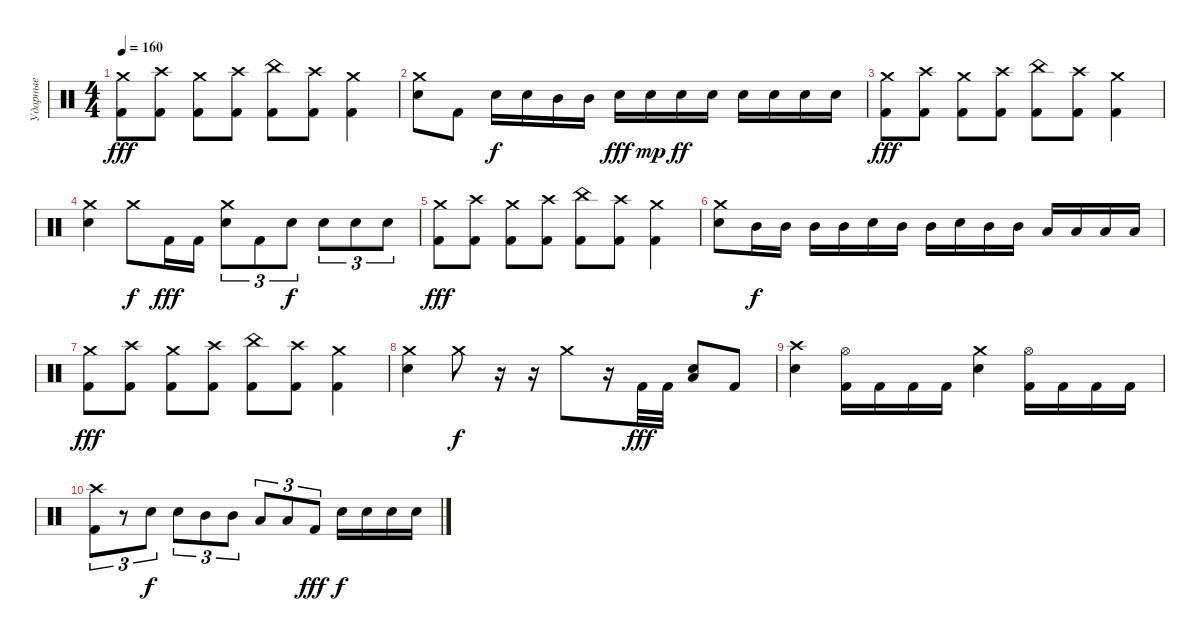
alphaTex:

\track ("Ударные" "Ударные") {instrument percussion}
\staff {score}
\articulation defaults
\ts (4 4)
\tempo 160
\clef neutral
\ks c
("Crash medium (hit)" "Kick (hit) 2").8{dy fff} ("Crash high (hit)" "Kick (hit) 2").8 ("Crash medium (hit)" "Kick (hit) 2").8 ("Crash high (hit)" "Kick (hit) 2").8 ("China (hit)" "Kick (hit) 2").8 ("Crash high (hit)" "Kick (hit) 2").8 ("Crash medium (hit)" "Kick (hit) 2").4 |
("Crash medium (hit)" "Electric Snare (hit)").8 "Kick (hit) 2".8 "Electric Snare (hit)".16{dy f} "Electric Snare (hit)".16 "Mid Tom (hit)".16 "Mid Tom (hit)".16 "Electric Snare (hit)".16{dy fff} "Electric Snare (hit)".16{dy mp} "Electric Snare (hit)".16{dy ff} "Electric Snare (hit)".16 "Electric Snare (hit)".16 "Electric Snare (hit)".16 "Electric Snare (hit)".16 "Electric Snare (hit)".16 |
("Crash medium (hit)" "Kick (hit) 2").8{dy fff} ("Crash high (hit)" "Kick (hit) 2").8 ("Crash medium (hit)" "Kick (hit) 2").8 ("Crash high (hit)" "Kick (hit) 2").8 ("China (hit)" "Kick (hit) 2").8 ("Crash high (hit)" "Kick (hit) 2").8 ("Crash medium (hit)" "Kick (hit) 2").4 |
("Crash medium (hit)" "Electric Snare (hit)").4 "Crash medium (hit)".8{dy f} "Kick (hit) 2".16{dy fff} "Kick (hit) 2".16 ("Crash medium (hit)" "Electric Snare (hit)").8{tu (3 2)} "Kick (hit) 2".8{tu (3 2)} "Electric Snare (hit)".8{tu (3 2) dy f} "Electric Snare (hit)".8{tu (3 2)} "Electric Snare (hit)".8{tu (3 2)} "Electric Snare (hit)".8{tu (3 2)} |
("Crash medium (hit)" "Kick (hit) 2").8{dy fff} ("Crash high (hit)" "Kick (hit) 2").8 ("Crash medium (hit)" "Kick (hit) 2").8 ("Crash high (hit)" "Kick (hit) 2").8 ("China (hit)" "Kick (hit) 2").8 ("Crash high (hit)" "Kick (hit) 2").8 ("Crash medium (hit)" "Kick (hit) 2").4 |
("Crash medium (hit)" "Electric Snare (hit)").8 "Mid Tom (hit)".16{dy f} "Mid Tom (hit)".16 "Mid Tom (hit)".16 "Mid Tom (hit)".16 "Electric Snare (hit)".16 "Mid Tom (hit)".16 "Mid Tom (hit)".16 "Electric Snare (hit)".16 "Mid Tom (hit)".16 "Mid Tom (hit)".16 "Low Tom (hit)".16 "Low Tom (hit)".16 "Low Floor Tom (hit)".16 "Low Floor Tom (hit)".16 |
("Crash medium (hit)" "Kick (hit) 2").8{dy fff} ("Crash high (hit)" "Kick (hit) 2").8 ("Crash medium (hit)" "Kick (hit) 2").8 ("Crash high (hit)" "Kick (hit) 2").8 ("China (hit)" "Kick (hit) 2").8 ("Crash high (hit)" "Kick (hit) 2").8 ("Crash medium (hit)" "Kick (hit) 2").4 |
("Crash medium (hit)" "Electric Snare (hit)").4 "Crash medium (hit)".8{dy f} r.16 r.16 "Crash medium (hit)".8 r.16 "Kick (hit) 2".32{dy fff} "Kick (hit) 2".32 ("Low Floor Tom (hit)" "Electric Snare (hit)").8 "Kick (hit) 2".8 |
("Crash high (hit)" "Electric Snare (hit)").4 ("Hi-Hat (open)" "Kick (hit) 2").16 "Kick (hit) 2".16 "Kick (hit) 2".16 "Kick (hit) 2".16 ("Crash medium (hit)" "Electric Snare (hit)").4 ("Hi-Hat (open)" "Kick (hit) 2").16 "Kick (hit) 2".16 "Kick (hit) 2".16 "Kick (hit) 2".16 |
("Crash high (hit)" "Kick (hit) 2").8{tu (3 2)} r.8{tu (3 2)} "Electric Snare (hit)".8{tu (3 2) dy f} "Electric Snare (hit)".8{tu (3 2)} "Mid Tom (hit)".8{tu (3 2)} "Mid Tom (hit)".8{tu (3 2)} "Low Tom (hit)".8{tu (3 2)} "Low Tom (hit)".8{tu (3 2)} "Kick (hit) 2".8{tu (3 2) dy fff} "Electric Snare (hit)".16{dy f} "Electric Snare (hit)".16 "Electric Snare (hit)".16 "Electric Snare (hit)".16
